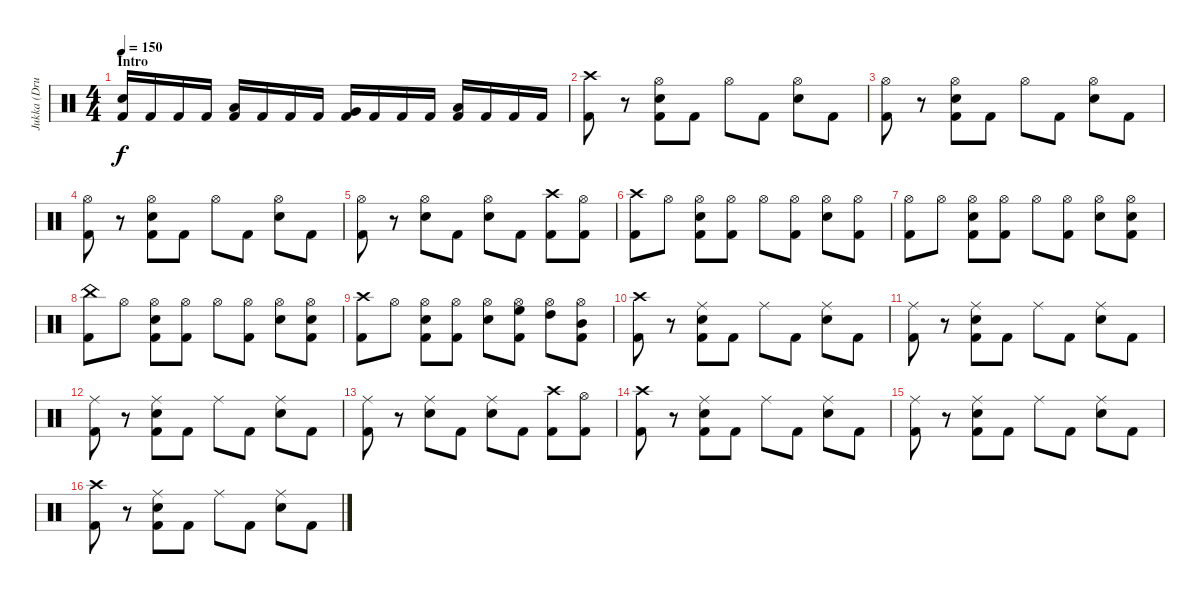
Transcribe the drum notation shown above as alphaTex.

\track ("Jukka (Drums)" "Jukka (Dru") {instrument percussion}
\staff {score}
\articulation defaults
\ts (4 4)
\section ("" "Intro")
\tempo 150
\clef neutral
\ks c
("Kick (hit) 2" "Electric Snare (hit)").16{dy f} "Kick (hit) 2".16 "Kick (hit) 2".16 "Kick (hit) 2".16 ("Kick (hit) 2" "Low Floor Tom (hit)").16 "Kick (hit) 2".16 "Kick (hit) 2".16 "Kick (hit) 2".16 ("Kick (hit) 2" "Very Low Tom (hit)").16 "Kick (hit) 2".16 "Kick (hit) 2".16 "Kick (hit) 2".16 ("Kick (hit) 2" "Low Tom (hit)").16 "Kick (hit) 2".16 "Kick (hit) 2".16 "Kick (hit) 2".16 |
("Kick (hit) 2" "Crash high (hit)").8 r.8 ("Kick (hit) 2" "Hi-Hat (open)" "Electric Snare (hit)").8 "Kick (hit) 2".8 "Hi-Hat (open)".8 "Kick (hit) 2".8 ("Hi-Hat (open)" "Electric Snare (hit)").8 "Kick (hit) 2".8 |
("Kick (hit) 2" "Hi-Hat (open)").8 r.8 ("Kick (hit) 2" "Hi-Hat (open)" "Electric Snare (hit)").8 "Kick (hit) 2".8 "Hi-Hat (open)".8 "Kick (hit) 2".8 ("Hi-Hat (open)" "Electric Snare (hit)").8 "Kick (hit) 2".8 |
("Kick (hit) 2" "Hi-Hat (open)").8 r.8 ("Kick (hit) 2" "Hi-Hat (open)" "Electric Snare (hit)").8 "Kick (hit) 2".8 "Hi-Hat (open)".8 "Kick (hit) 2".8 ("Hi-Hat (open)" "Electric Snare (hit)").8 "Kick (hit) 2".8 |
("Kick (hit) 2" "Hi-Hat (open)").8 r.8 ("Hi-Hat (open)" "Electric Snare (hit)").8 "Kick (hit) 2".8 ("Hi-Hat (open)" "Electric Snare (hit)").8 "Kick (hit) 2".8 ("Kick (hit) 2" "Crash high (hit)").8 ("Kick (hit) 2" "Hi-Hat (open)").8 |
("Kick (hit) 2" "Crash high (hit)").8 "Hi-Hat (open)".8 ("Kick (hit) 2" "Hi-Hat (open)" "Electric Snare (hit)").8 ("Kick (hit) 2" "Hi-Hat (open)").8 "Hi-Hat (open)".8 ("Kick (hit) 2" "Hi-Hat (open)").8 ("Hi-Hat (open)" "Electric Snare (hit)").8 ("Kick (hit) 2" "Hi-Hat (open)").8 |
("Kick (hit) 2" "Hi-Hat (open)").8 "Hi-Hat (open)".8 ("Kick (hit) 2" "Hi-Hat (open)" "Electric Snare (hit)").8 ("Kick (hit) 2" "Hi-Hat (open)").8 "Hi-Hat (open)".8 ("Kick (hit) 2" "Hi-Hat (open)").8 ("Hi-Hat (open)" "Electric Snare (hit)").8 ("Kick (hit) 2" "Hi-Hat (open)" "Electric Snare (hit)").8 |
("Kick (hit) 2" "China (hit)").8 "Hi-Hat (open)".8 ("Kick (hit) 2" "Hi-Hat (open)" "Electric Snare (hit)").8 ("Kick (hit) 2" "Hi-Hat (open)").8 "Hi-Hat (open)".8 ("Kick (hit) 2" "Hi-Hat (open)").8 ("Hi-Hat (open)" "Electric Snare (hit)").8 ("Kick (hit) 2" "Hi-Hat (open)" "Electric Snare (hit)").8 |
("Kick (hit) 2" "Crash high (hit)").8 "Hi-Hat (open)".8 ("Kick (hit) 2" "Hi-Hat (open)" "Electric Snare (hit)").8 ("Kick (hit) 2" "Hi-Hat (open)").8 ("Hi-Hat (open)" "Electric Snare (hit)").8 ("Kick (hit) 2" "Hi-Hat (open)" "High Floor Tom (hit)").8 ("Hi-Hat (open)" "High Tom (hit)").8 ("Kick (hit) 2" "Hi-Hat (open)" "Mid Tom (hit)").8 |
("Kick (hit) 2" "Crash high (hit)").8 r.8 ("Kick (hit) 2" "Ride (middle)" "Electric Snare (hit)").8 "Kick (hit) 2".8 "Ride (middle)".8 "Kick (hit) 2".8 ("Ride (middle)" "Electric Snare (hit)").8 "Kick (hit) 2".8 |
("Kick (hit) 2" "Ride (middle)").8 r.8 ("Kick (hit) 2" "Ride (middle)" "Electric Snare (hit)").8 "Kick (hit) 2".8 "Ride (middle)".8 "Kick (hit) 2".8 ("Ride (middle)" "Electric Snare (hit)").8 "Kick (hit) 2".8 |
("Kick (hit) 2" "Ride (middle)").8 r.8 ("Kick (hit) 2" "Ride (middle)" "Electric Snare (hit)").8 "Kick (hit) 2".8 "Ride (middle)".8 "Kick (hit) 2".8 ("Ride (middle)" "Electric Snare (hit)").8 "Kick (hit) 2".8 |
("Kick (hit) 2" "Ride (middle)").8 r.8 ("Ride (middle)" "Electric Snare (hit)").8 "Kick (hit) 2".8 ("Ride (middle)" "Electric Snare (hit)").8 "Kick (hit) 2".8 ("Kick (hit) 2" "Crash high (hit)").8 ("Kick (hit) 2" "Hi-Hat (open)").8 |
("Kick (hit) 2" "Crash high (hit)").8 r.8 ("Kick (hit) 2" "Ride (middle)" "Electric Snare (hit)").8 "Kick (hit) 2".8 "Ride (middle)".8 "Kick (hit) 2".8 ("Ride (middle)" "Electric Snare (hit)").8 "Kick (hit) 2".8 |
("Kick (hit) 2" "Ride (middle)").8 r.8 ("Kick (hit) 2" "Ride (middle)" "Electric Snare (hit)").8 "Kick (hit) 2".8 "Ride (middle)".8 "Kick (hit) 2".8 ("Ride (middle)" "Electric Snare (hit)").8 "Kick (hit) 2".8 |
("Kick (hit) 2" "Crash high (hit)").8 r.8 ("Ride (middle)" "Kick (hit) 2" "Electric Snare (hit)").8 "Kick (hit) 2".8 "Ride (middle)".8 "Kick (hit) 2".8 ("Ride (middle)" "Electric Snare (hit)").8 "Kick (hit) 2".8
